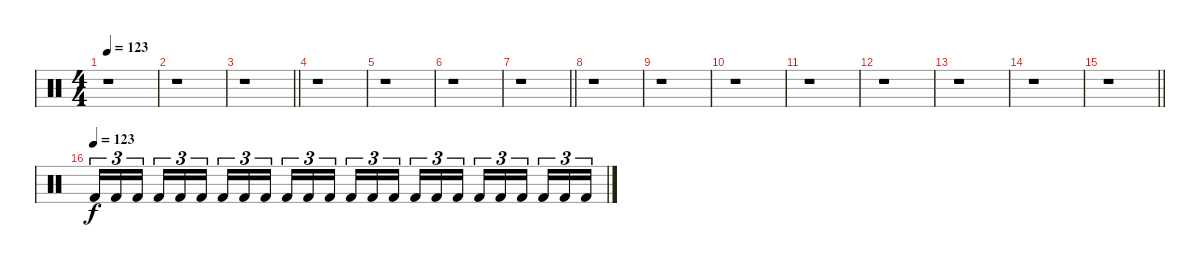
\track "" {instrument percussion}
\staff {score}
\articulation defaults
\ts (4 4)
\tempo 123
\clef neutral
\ks c
r.1{dy f} |
r.1 |
\barLineRight lightlight
r.1 |
r.1 |
r.1 |
r.1 |
\barLineRight lightlight
r.1 |
r.1 |
r.1 |
r.1 |
r.1 |
r.1 |
r.1 |
r.1 |
\barLineRight lightlight
r.1 |
\tempo (123)
"Kick (hit) 2".16{tu (3 2)} "Kick (hit) 2".16{tu (3 2)} "Kick (hit) 2".16{tu (3 2) beam splitsecondary} "Kick (hit) 2".16{tu (3 2)} "Kick (hit) 2".16{tu (3 2)} "Kick (hit) 2".16{tu (3 2)} "Kick (hit) 2".16{tu (3 2)} "Kick (hit) 2".16{tu (3 2)} "Kick (hit) 2".16{tu (3 2) beam splitsecondary} "Kick (hit) 2".16{tu (3 2)} "Kick (hit) 2".16{tu (3 2)} "Kick (hit) 2".16{tu (3 2)} "Kick (hit) 2".16{tu (3 2)} "Kick (hit) 2".16{tu (3 2)} "Kick (hit) 2".16{tu (3 2) beam splitsecondary} "Kick (hit) 2".16{tu (3 2)} "Kick (hit) 2".16{tu (3 2)} "Kick (hit) 2".16{tu (3 2)} "Kick (hit) 2".16{tu (3 2)} "Kick (hit) 2".16{tu (3 2)} "Kick (hit) 2".16{tu (3 2) beam splitsecondary} "Kick (hit) 2".16{tu (3 2)} "Kick (hit) 2".16{tu (3 2)} "Kick (hit) 2".16{tu (3 2)}
